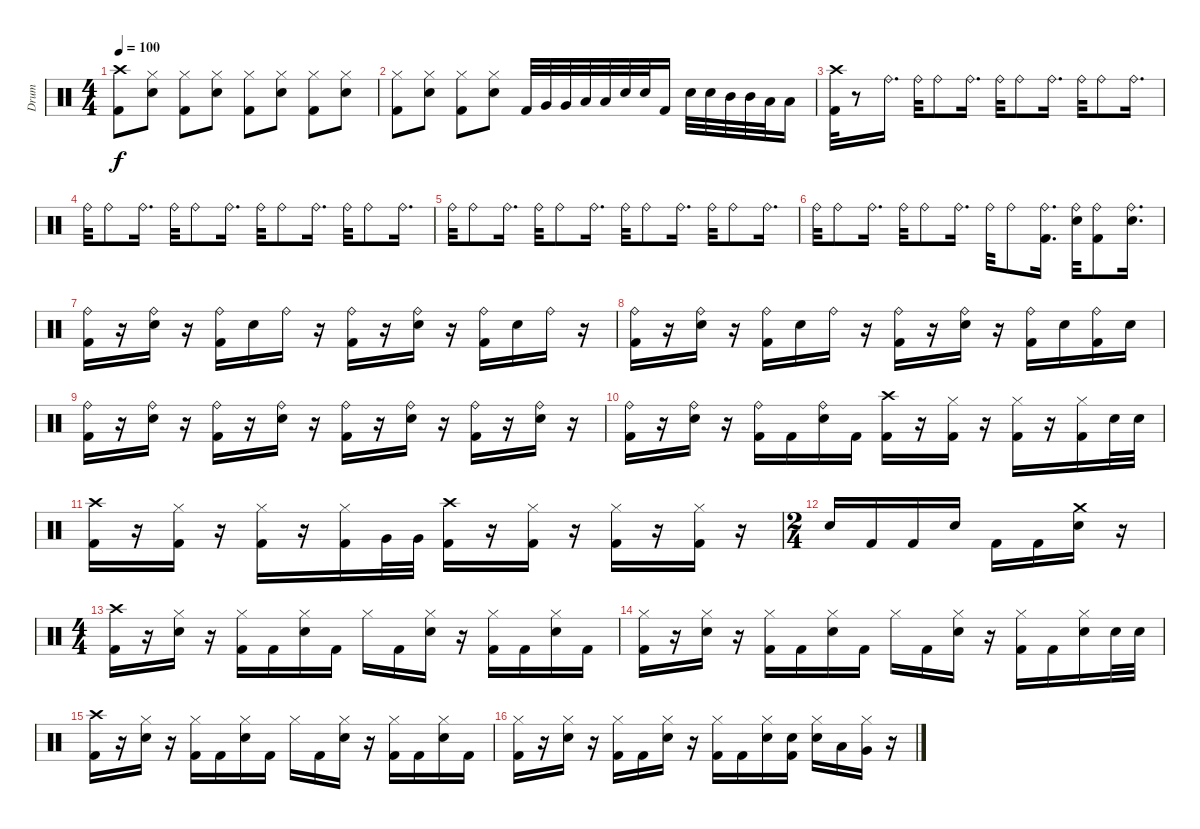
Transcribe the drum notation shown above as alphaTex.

\track ("Drum" "Drum") {instrument percussion}
\staff {score}
\articulation defaults
\ts (4 4)
\tempo 100
\clef neutral
\ks c
("Crash high (hit)" "Kick (hit) 2").8{dy f} ("Hi-Hat (closed)" "Electric Snare (hit)").8 ("Hi-Hat (closed)" "Kick (hit) 2").8 ("Hi-Hat (closed)" "Electric Snare (hit)").8 ("Hi-Hat (closed)" "Kick (hit) 2").8 ("Hi-Hat (closed)" "Electric Snare (hit)").8 ("Hi-Hat (closed)" "Kick (hit) 2").8 ("Hi-Hat (closed)" "Electric Snare (hit)").8 |
("Hi-Hat (closed)" "Kick (hit) 2").8 ("Hi-Hat (closed)" "Electric Snare (hit)").8 ("Hi-Hat (closed)" "Kick (hit) 2").8 ("Hi-Hat (closed)" "Electric Snare (hit)").8 "Kick (hit) 2".32 "Very Low Tom (hit)".32 "Very Low Tom (hit)".32 "Low Tom (hit)".32 "Low Tom (hit)".32 "Electric Snare (hit)".32 "Electric Snare (hit)".32 "Kick (hit) 2".16 "Electric Snare (hit)".32 "Electric Snare (hit)".32 "Mid Tom (hit)".32 "Mid Tom (hit)".32 "Low Tom (hit)".32 "Low Tom (hit)".16 |
("Crash high (hit)" "Kick (hit) 2").32 r.8 "Ride (bell)".16{d} "Ride (bell)".32 "Ride (bell)".8 "Ride (bell)".16{d} "Ride (bell)".32 "Ride (bell)".8 "Ride (bell)".16{d} "Ride (bell)".32 "Ride (bell)".8 "Ride (bell)".16{d} |
"Ride (bell)".32 "Ride (bell)".8 "Ride (bell)".16{d} "Ride (bell)".32 "Ride (bell)".8 "Ride (bell)".16{d} "Ride (bell)".32 "Ride (bell)".8 "Ride (bell)".16{d} "Ride (bell)".32 "Ride (bell)".8 "Ride (bell)".16{d} |
"Ride (bell)".32 "Ride (bell)".8 "Ride (bell)".16{d} "Ride (bell)".32 "Ride (bell)".8 "Ride (bell)".16{d} "Ride (bell)".32 "Ride (bell)".8 "Ride (bell)".16{d} "Ride (bell)".32 "Ride (bell)".8 "Ride (bell)".16{d} |
"Ride (bell)".32 "Ride (bell)".8 "Ride (bell)".16{d} "Ride (bell)".32 "Ride (bell)".8 "Ride (bell)".16{d} "Ride (bell)".32 "Ride (bell)".8 ("Ride (bell)" "Kick (hit) 2").16{d} ("Ride (bell)" "Electric Snare (hit)").32 ("Ride (bell)" "Kick (hit) 2").8 ("Ride (bell)" "Electric Snare (hit)").16{d} |
("Ride (bell)" "Kick (hit) 2").16 r.16 ("Ride (bell)" "Electric Snare (hit)").16 r.16 ("Ride (bell)" "Kick (hit) 2").16 "Electric Snare (hit)".16 "Ride (bell)".16 r.16 ("Ride (bell)" "Kick (hit) 2").16 r.16 ("Ride (bell)" "Electric Snare (hit)").16 r.16 ("Ride (bell)" "Kick (hit) 2").16 "Electric Snare (hit)".16 "Ride (bell)".16 r.16 |
("Ride (bell)" "Kick (hit) 2").16 r.16 ("Ride (bell)" "Electric Snare (hit)").16 r.16 ("Ride (bell)" "Kick (hit) 2").16 "Electric Snare (hit)".16 "Ride (bell)".16 r.16 ("Ride (bell)" "Kick (hit) 2").16 r.16 ("Ride (bell)" "Electric Snare (hit)").16 r.16 ("Ride (bell)" "Kick (hit) 2").16 "Electric Snare (hit)".16 ("Ride (bell)" "Kick (hit) 2").16 "Electric Snare (hit)".16 |
("Ride (bell)" "Kick (hit) 2").16 r.16 ("Ride (bell)" "Electric Snare (hit)").16 r.16 ("Ride (bell)" "Kick (hit) 2").16 r.16 ("Ride (bell)" "Electric Snare (hit)").16 r.16 ("Ride (bell)" "Kick (hit) 2").16 r.16 ("Ride (bell)" "Electric Snare (hit)").16 r.16 ("Ride (bell)" "Kick (hit) 2").16 r.16 ("Ride (bell)" "Electric Snare (hit)").16 r.16 |
("Ride (bell)" "Kick (hit) 2").16 r.16 ("Ride (bell)" "Electric Snare (hit)").16 r.16 ("Ride (bell)" "Kick (hit) 2").16 "Kick (hit) 2".16 ("Ride (bell)" "Electric Snare (hit)").16 "Kick (hit) 2".16 ("Crash high (hit)" "Kick (hit) 2").16 r.16 ("Hi-Hat (closed)" "Kick (hit) 2").16 r.16 ("Hi-Hat (closed)" "Kick (hit) 2").16 r.16 ("Hi-Hat (closed)" "Kick (hit) 2").16 "Electric Snare (hit)".32 "Electric Snare (hit)".32 |
("Crash high (hit)" "Kick (hit) 2").16 r.16 ("Hi-Hat (closed)" "Kick (hit) 2").16 r.16 ("Hi-Hat (closed)" "Kick (hit) 2").16 r.16 ("Hi-Hat (closed)" "Kick (hit) 2").16 "Very Low Tom (hit)".32 "Very Low Tom (hit)".32 ("Crash high (hit)" "Kick (hit) 2").16 r.16 ("Hi-Hat (closed)" "Kick (hit) 2").16 r.16 ("Hi-Hat (closed)" "Kick (hit) 2").16 r.16 ("Hi-Hat (closed)" "Kick (hit) 2").16 r.16 |
\ts (2 4)
"Electric Snare (hit)".16 "Kick (hit) 2".16 "Kick (hit) 2".16 "Electric Snare (hit)".16 "Kick (hit) 2".16 "Kick (hit) 2".16 ("Crash medium (hit)" "Electric Snare (hit)").16 r.16 |
\ts (4 4)
("Crash high (hit)" "Kick (hit) 2").16 r.16 ("Hi-Hat (closed)" "Electric Snare (hit)").16 r.16 ("Hi-Hat (closed)" "Kick (hit) 2").16 "Kick (hit) 2".16 ("Hi-Hat (closed)" "Electric Snare (hit)").16 "Kick (hit) 2".16 "Hi-Hat (closed)".16 "Kick (hit) 2".16 ("Hi-Hat (closed)" "Electric Snare (hit)").16 r.16 ("Hi-Hat (closed)" "Kick (hit) 2").16 "Kick (hit) 2".16 ("Hi-Hat (closed)" "Electric Snare (hit)").16 "Kick (hit) 2".16 |
("Hi-Hat (closed)" "Kick (hit) 2").16 r.16 ("Hi-Hat (closed)" "Electric Snare (hit)").16 r.16 ("Hi-Hat (closed)" "Kick (hit) 2").16 "Kick (hit) 2".16 ("Hi-Hat (closed)" "Electric Snare (hit)").16 "Kick (hit) 2".16 "Hi-Hat (closed)".16 "Kick (hit) 2".16 ("Hi-Hat (closed)" "Electric Snare (hit)").16 r.16 ("Hi-Hat (closed)" "Kick (hit) 2").16 "Kick (hit) 2".16 ("Hi-Hat (closed)" "Electric Snare (hit)").16 "Electric Snare (hit)".32 "Electric Snare (hit)".32 |
("Crash high (hit)" "Kick (hit) 2").16 r.16 ("Hi-Hat (closed)" "Electric Snare (hit)").16 r.16 ("Hi-Hat (closed)" "Kick (hit) 2").16 "Kick (hit) 2".16 ("Hi-Hat (closed)" "Electric Snare (hit)").16 "Kick (hit) 2".16 "Hi-Hat (closed)".16 "Kick (hit) 2".16 ("Hi-Hat (closed)" "Electric Snare (hit)").16 r.16 ("Hi-Hat (closed)" "Kick (hit) 2").16 "Kick (hit) 2".16 ("Hi-Hat (closed)" "Electric Snare (hit)").16 "Kick (hit) 2".16 |
("Hi-Hat (closed)" "Kick (hit) 2").16 r.16 ("Hi-Hat (closed)" "Electric Snare (hit)").16 r.16 ("Hi-Hat (closed)" "Kick (hit) 2").16 "Kick (hit) 2".16 ("Hi-Hat (closed)" "Electric Snare (hit)").16 r.16 ("Hi-Hat (closed)" "Kick (hit) 2").16 "Kick (hit) 2".16 ("Hi-Hat (closed)" "Electric Snare (hit)").16 ("Electric Snare (hit)" "Kick (hit) 2").16 ("Hi-Hat (closed)" "Electric Snare (hit)").16 "Low Tom (hit)".16 ("Hi-Hat (closed)" "Very Low Tom (hit)").16 r.16
